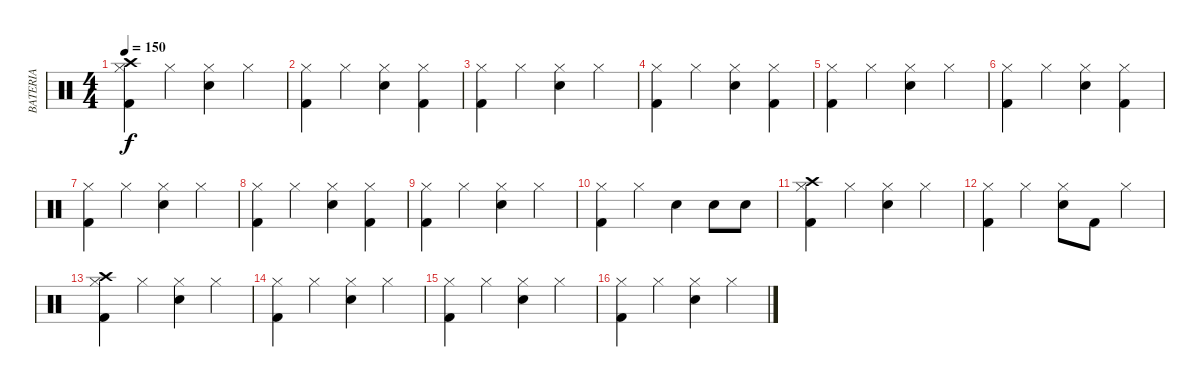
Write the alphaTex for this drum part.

\track ("BATERIA" "BATERIA") {instrument percussion}
\staff {score}
\articulation defaults
\ts (4 4)
\tempo 150
\clef neutral
\ks c
("Crash high (hit)" "Hi-Hat (closed)" "Kick (hit) 2").4{dy f} "Hi-Hat (closed)".4 ("Hi-Hat (closed)" "Snare (hit) 2").4 "Hi-Hat (closed)".4 |
("Hi-Hat (closed)" "Kick (hit) 2").4 "Hi-Hat (closed)".4 ("Hi-Hat (closed)" "Snare (hit) 2").4 ("Hi-Hat (closed)" "Kick (hit) 2").4 |
("Hi-Hat (closed)" "Kick (hit) 2").4 "Hi-Hat (closed)".4 ("Hi-Hat (closed)" "Snare (hit) 2").4 "Hi-Hat (closed)".4 |
("Hi-Hat (closed)" "Kick (hit) 2").4 "Hi-Hat (closed)".4 ("Hi-Hat (closed)" "Snare (hit) 2").4 ("Hi-Hat (closed)" "Kick (hit) 2").4 |
("Hi-Hat (closed)" "Kick (hit) 2").4 "Hi-Hat (closed)".4 ("Hi-Hat (closed)" "Snare (hit) 2").4 "Hi-Hat (closed)".4 |
("Hi-Hat (closed)" "Kick (hit) 2").4 "Hi-Hat (closed)".4 ("Hi-Hat (closed)" "Snare (hit) 2").4 ("Hi-Hat (closed)" "Kick (hit) 2").4 |
("Hi-Hat (closed)" "Kick (hit) 2").4 "Hi-Hat (closed)".4 ("Hi-Hat (closed)" "Snare (hit) 2").4 "Hi-Hat (closed)".4 |
("Hi-Hat (closed)" "Kick (hit) 2").4 "Hi-Hat (closed)".4 ("Hi-Hat (closed)" "Snare (hit) 2").4 ("Hi-Hat (closed)" "Kick (hit) 2").4 |
("Hi-Hat (closed)" "Kick (hit) 2").4 "Hi-Hat (closed)".4 ("Hi-Hat (closed)" "Snare (hit) 2").4 "Hi-Hat (closed)".4 |
("Hi-Hat (closed)" "Kick (hit) 2").4 "Hi-Hat (closed)".4 "Snare (hit) 2".4 "Snare (hit) 2".8 "Snare (hit) 2".8 |
("Crash high (hit)" "Hi-Hat (closed)" "Kick (hit) 2").4 "Hi-Hat (closed)".4 ("Hi-Hat (closed)" "Snare (hit) 2").4 "Hi-Hat (closed)".4 |
("Hi-Hat (closed)" "Kick (hit) 2").4 "Hi-Hat (closed)".4 ("Hi-Hat (closed)" "Snare (hit) 2").8 "Kick (hit) 2".8 "Hi-Hat (closed)".4 |
("Crash high (hit)" "Hi-Hat (closed)" "Kick (hit) 2").4 "Hi-Hat (closed)".4 ("Hi-Hat (closed)" "Snare (hit) 2").4 "Hi-Hat (closed)".4 |
("Hi-Hat (closed)" "Kick (hit) 2").4 "Hi-Hat (closed)".4 ("Hi-Hat (closed)" "Snare (hit) 2").4 "Hi-Hat (closed)".4 |
("Hi-Hat (closed)" "Kick (hit) 2").4 "Hi-Hat (closed)".4 ("Hi-Hat (closed)" "Snare (hit) 2").4 "Hi-Hat (closed)".4 |
("Hi-Hat (closed)" "Kick (hit) 2").4 "Hi-Hat (closed)".4 ("Hi-Hat (closed)" "Snare (hit) 2").4 "Hi-Hat (closed)".4
